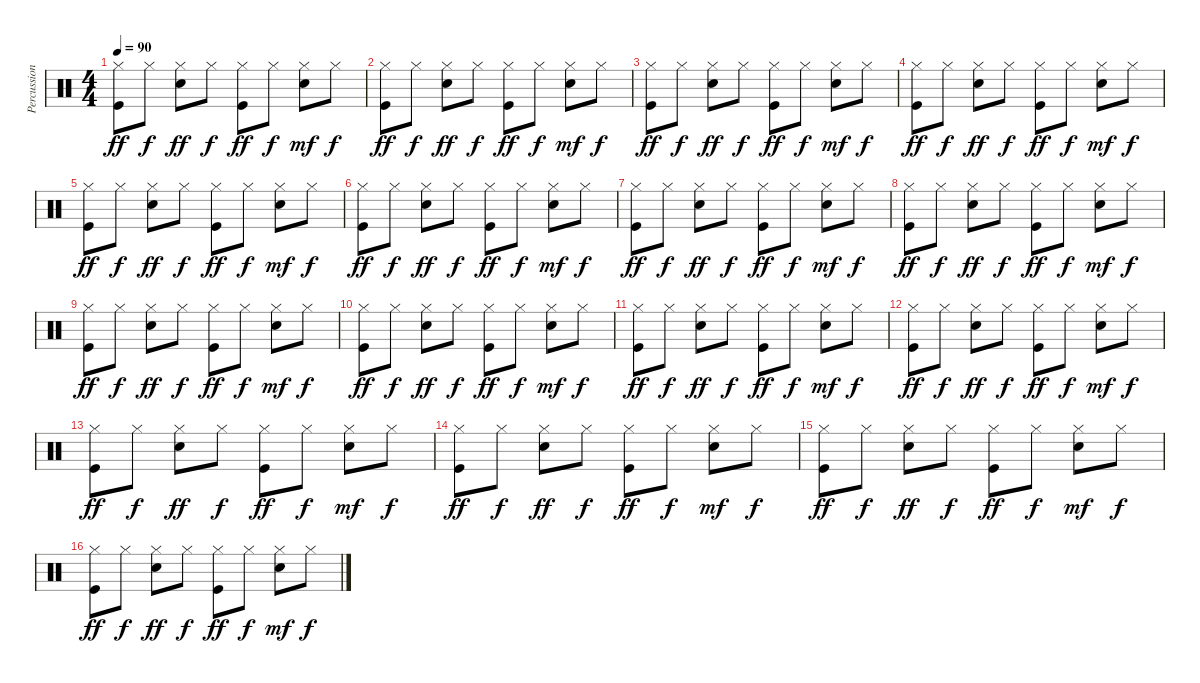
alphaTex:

\track ("Percussion" "Percussion") {instrument percussion}
\staff {score}
\articulation defaults
\ts (4 4)
\tempo 90
\clef neutral
\ks c
("Hi-Hat (closed)" "Kick (hit)").8{dy ff} "Hi-Hat (closed)".8{dy f} ("Hi-Hat (closed)" "Snare (hit) 2").8{dy ff} "Hi-Hat (closed)".8{dy f} ("Hi-Hat (closed)" "Kick (hit)").8{dy ff} "Hi-Hat (closed)".8{dy f} ("Hi-Hat (closed)" "Snare (hit) 2").8{dy mf} "Hi-Hat (closed)".8{dy f} |
("Hi-Hat (closed)" "Kick (hit)").8{dy ff} "Hi-Hat (closed)".8{dy f} ("Hi-Hat (closed)" "Snare (hit) 2").8{dy ff} "Hi-Hat (closed)".8{dy f} ("Hi-Hat (closed)" "Kick (hit)").8{dy ff} "Hi-Hat (closed)".8{dy f} ("Hi-Hat (closed)" "Snare (hit) 2").8{dy mf} "Hi-Hat (closed)".8{dy f} |
("Hi-Hat (closed)" "Kick (hit)").8{dy ff} "Hi-Hat (closed)".8{dy f} ("Hi-Hat (closed)" "Snare (hit) 2").8{dy ff} "Hi-Hat (closed)".8{dy f} ("Hi-Hat (closed)" "Kick (hit)").8{dy ff} "Hi-Hat (closed)".8{dy f} ("Hi-Hat (closed)" "Snare (hit) 2").8{dy mf} "Hi-Hat (closed)".8{dy f} |
("Hi-Hat (closed)" "Kick (hit)").8{dy ff} "Hi-Hat (closed)".8{dy f} ("Hi-Hat (closed)" "Snare (hit) 2").8{dy ff} "Hi-Hat (closed)".8{dy f} ("Hi-Hat (closed)" "Kick (hit)").8{dy ff} "Hi-Hat (closed)".8{dy f} ("Hi-Hat (closed)" "Snare (hit) 2").8{dy mf} "Hi-Hat (closed)".8{dy f} |
("Hi-Hat (closed)" "Kick (hit)").8{dy ff} "Hi-Hat (closed)".8{dy f} ("Hi-Hat (closed)" "Snare (hit) 2").8{dy ff} "Hi-Hat (closed)".8{dy f} ("Hi-Hat (closed)" "Kick (hit)").8{dy ff} "Hi-Hat (closed)".8{dy f} ("Hi-Hat (closed)" "Snare (hit) 2").8{dy mf} "Hi-Hat (closed)".8{dy f} |
("Hi-Hat (closed)" "Kick (hit)").8{dy ff} "Hi-Hat (closed)".8{dy f} ("Hi-Hat (closed)" "Snare (hit) 2").8{dy ff} "Hi-Hat (closed)".8{dy f} ("Hi-Hat (closed)" "Kick (hit)").8{dy ff} "Hi-Hat (closed)".8{dy f} ("Hi-Hat (closed)" "Snare (hit) 2").8{dy mf} "Hi-Hat (closed)".8{dy f} |
("Hi-Hat (closed)" "Kick (hit)").8{dy ff} "Hi-Hat (closed)".8{dy f} ("Hi-Hat (closed)" "Snare (hit) 2").8{dy ff} "Hi-Hat (closed)".8{dy f} ("Hi-Hat (closed)" "Kick (hit)").8{dy ff} "Hi-Hat (closed)".8{dy f} ("Hi-Hat (closed)" "Snare (hit) 2").8{dy mf} "Hi-Hat (closed)".8{dy f} |
("Hi-Hat (closed)" "Kick (hit)").8{dy ff} "Hi-Hat (closed)".8{dy f} ("Hi-Hat (closed)" "Snare (hit) 2").8{dy ff} "Hi-Hat (closed)".8{dy f} ("Hi-Hat (closed)" "Kick (hit)").8{dy ff} "Hi-Hat (closed)".8{dy f} ("Hi-Hat (closed)" "Snare (hit) 2").8{dy mf} "Hi-Hat (closed)".8{dy f} |
("Hi-Hat (closed)" "Kick (hit)").8{dy ff} "Hi-Hat (closed)".8{dy f} ("Hi-Hat (closed)" "Snare (hit) 2").8{dy ff} "Hi-Hat (closed)".8{dy f} ("Hi-Hat (closed)" "Kick (hit)").8{dy ff} "Hi-Hat (closed)".8{dy f} ("Hi-Hat (closed)" "Snare (hit) 2").8{dy mf} "Hi-Hat (closed)".8{dy f} |
("Hi-Hat (closed)" "Kick (hit)").8{dy ff} "Hi-Hat (closed)".8{dy f} ("Hi-Hat (closed)" "Snare (hit) 2").8{dy ff} "Hi-Hat (closed)".8{dy f} ("Hi-Hat (closed)" "Kick (hit)").8{dy ff} "Hi-Hat (closed)".8{dy f} ("Hi-Hat (closed)" "Snare (hit) 2").8{dy mf} "Hi-Hat (closed)".8{dy f} |
("Hi-Hat (closed)" "Kick (hit)").8{dy ff} "Hi-Hat (closed)".8{dy f} ("Hi-Hat (closed)" "Snare (hit) 2").8{dy ff} "Hi-Hat (closed)".8{dy f} ("Hi-Hat (closed)" "Kick (hit)").8{dy ff} "Hi-Hat (closed)".8{dy f} ("Hi-Hat (closed)" "Snare (hit) 2").8{dy mf} "Hi-Hat (closed)".8{dy f} |
("Hi-Hat (closed)" "Kick (hit)").8{dy ff} "Hi-Hat (closed)".8{dy f} ("Hi-Hat (closed)" "Snare (hit) 2").8{dy ff} "Hi-Hat (closed)".8{dy f} ("Hi-Hat (closed)" "Kick (hit)").8{dy ff} "Hi-Hat (closed)".8{dy f} ("Hi-Hat (closed)" "Snare (hit) 2").8{dy mf} "Hi-Hat (closed)".8{dy f} |
("Hi-Hat (closed)" "Kick (hit)").8{dy ff} "Hi-Hat (closed)".8{dy f} ("Hi-Hat (closed)" "Snare (hit) 2").8{dy ff} "Hi-Hat (closed)".8{dy f} ("Hi-Hat (closed)" "Kick (hit)").8{dy ff} "Hi-Hat (closed)".8{dy f} ("Hi-Hat (closed)" "Snare (hit) 2").8{dy mf} "Hi-Hat (closed)".8{dy f} |
("Hi-Hat (closed)" "Kick (hit)").8{dy ff} "Hi-Hat (closed)".8{dy f} ("Hi-Hat (closed)" "Snare (hit) 2").8{dy ff} "Hi-Hat (closed)".8{dy f} ("Hi-Hat (closed)" "Kick (hit)").8{dy ff} "Hi-Hat (closed)".8{dy f} ("Hi-Hat (closed)" "Snare (hit) 2").8{dy mf} "Hi-Hat (closed)".8{dy f} |
("Hi-Hat (closed)" "Kick (hit)").8{dy ff} "Hi-Hat (closed)".8{dy f} ("Hi-Hat (closed)" "Snare (hit) 2").8{dy ff} "Hi-Hat (closed)".8{dy f} ("Hi-Hat (closed)" "Kick (hit)").8{dy ff} "Hi-Hat (closed)".8{dy f} ("Hi-Hat (closed)" "Snare (hit) 2").8{dy mf} "Hi-Hat (closed)".8{dy f} |
("Hi-Hat (closed)" "Kick (hit)").8{dy ff} "Hi-Hat (closed)".8{dy f} ("Hi-Hat (closed)" "Snare (hit) 2").8{dy ff} "Hi-Hat (closed)".8{dy f} ("Hi-Hat (closed)" "Kick (hit)").8{dy ff} "Hi-Hat (closed)".8{dy f} ("Hi-Hat (closed)" "Snare (hit) 2").8{dy mf} "Hi-Hat (closed)".8{dy f}
